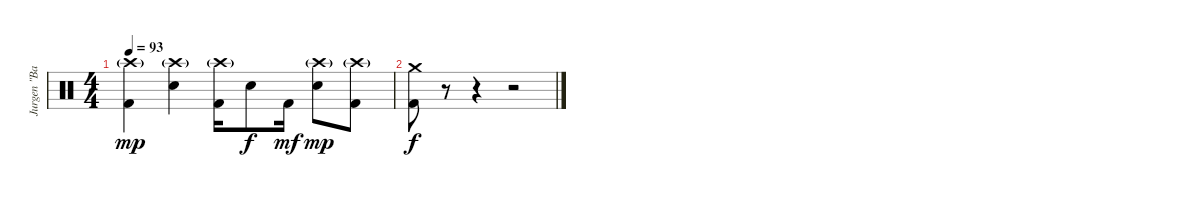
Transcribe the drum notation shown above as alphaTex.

\track ("Jurgen \"Bam Bam\" Wiehler" "Jurgen \"Ba") {instrument percussion}
\staff {score}
\articulation defaults
\ts (4 4)
\tempo 93
\clef neutral
\ks c
("Crash high (hit)"{g} "Kick (hit) 2").4{dy mp} ("Crash high (hit)"{g} "Electric Snare (hit)").4 ("Crash high (hit)"{g} "Kick (hit) 2").16 "Electric Snare (hit)".8{dy f} "Kick (hit) 2".16{dy mf} ("Crash high (hit)"{g} "Electric Snare (hit)").8{dy mp} ("Crash high (hit)"{g} "Kick (hit) 2").8 |
("Crash medium (hit)" "Kick (hit) 2").8{dy f} r.8 r.4 r.2
